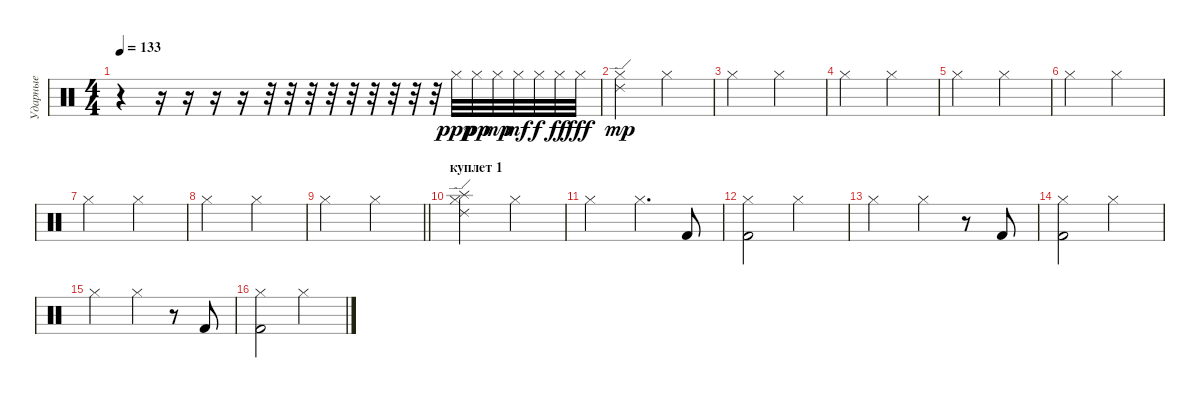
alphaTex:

\track ("Ударные" "Ударные") {instrument percussion}
\staff {score}
\articulation defaults
\ts (4 4)
\tempo 133
\clef neutral
\ks c
r.4{dy ppp} r.16 r.16 r.16 r.16 r.32 r.32 r.32 r.32 r.32 r.32 r.32 r.32 r.32 "Hi-Hat (closed)".32 "Hi-Hat (closed)".32{dy pp} "Hi-Hat (closed)".32{dy mp} "Hi-Hat (closed)".32{dy mf} "Hi-Hat (closed)".32{dy f} "Hi-Hat (closed)".32{dy ff} "Hi-Hat (closed)".32{dy fff} |
("Ride (edge) 2" "Hi-Hat (closed)").2{dy mp} "Hi-Hat (closed)".2 |
"Hi-Hat (closed)".2 "Hi-Hat (closed)".2 |
"Hi-Hat (closed)".2 "Hi-Hat (closed)".2 |
"Hi-Hat (closed)".2 "Hi-Hat (closed)".2 |
"Hi-Hat (closed)".2 "Hi-Hat (closed)".2 |
"Hi-Hat (closed)".2 "Hi-Hat (closed)".2 |
"Hi-Hat (closed)".2 "Hi-Hat (closed)".2 |
\barLineRight lightlight "Hi-Hat (closed)".2 "Hi-Hat (closed)".2
|
\section ("" "куплет 1")
("Ride (edge) 2" "Splash (hit)" "Hi-Hat (closed)").2 "Hi-Hat (closed)".2 |
"Hi-Hat (closed)".2 "Hi-Hat (closed)".4{d} "Kick (hit) 2".8 |
("Kick (hit) 2" "Hi-Hat (closed)").2 "Hi-Hat (closed)".2 |
"Hi-Hat (closed)".2 "Hi-Hat (closed)".4 r.8 "Kick (hit) 2".8 |
("Kick (hit) 2" "Hi-Hat (closed)").2 "Hi-Hat (closed)".2 |
"Hi-Hat (closed)".2 "Hi-Hat (closed)".4 r.8 "Kick (hit) 2".8 |
("Kick (hit) 2" "Hi-Hat (closed)").2 "Hi-Hat (closed)".2
